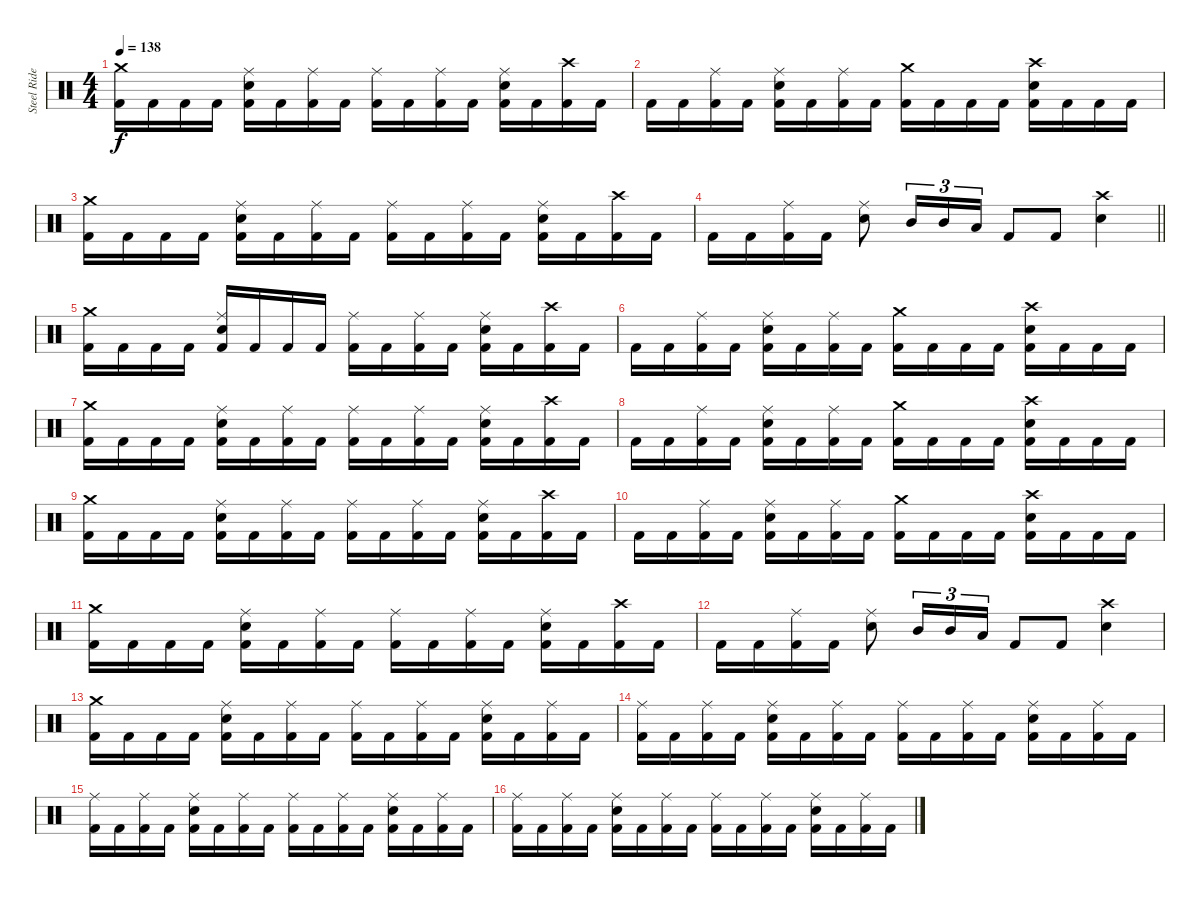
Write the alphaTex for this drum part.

\track ("Steel Rider" "Steel Ride") {instrument percussion}
\staff {score}
\articulation defaults
\ts (4 4)
\tempo 138
\clef neutral
\ks c
("Crash medium (hit)" "Kick (hit) 2").16{dy f} "Kick (hit) 2".16 "Kick (hit) 2".16 "Kick (hit) 2".16 ("Ride (middle)" "Electric Snare (hit)" "Kick (hit) 2").16 "Kick (hit) 2".16 ("Ride (middle)" "Kick (hit) 2").16 "Kick (hit) 2".16 ("Ride (middle)" "Kick (hit) 2").16 "Kick (hit) 2".16 ("Ride (middle)" "Kick (hit) 2").16 "Kick (hit) 2".16 ("Ride (middle)" "Electric Snare (hit)" "Kick (hit) 2").16 "Kick (hit) 2".16 ("Crash high (hit)" "Kick (hit) 2").16 "Kick (hit) 2".16 |
"Kick (hit) 2".16 "Kick (hit) 2".16 ("Ride (middle)" "Kick (hit) 2").16 "Kick (hit) 2".16 ("Ride (middle)" "Electric Snare (hit)" "Kick (hit) 2").16 "Kick (hit) 2".16 ("Ride (middle)" "Kick (hit) 2").16 "Kick (hit) 2".16 ("Crash medium (hit)" "Kick (hit) 2").16 "Kick (hit) 2".16 "Kick (hit) 2".16 "Kick (hit) 2".16 ("Crash high (hit)" "Electric Snare (hit)" "Kick (hit) 2").16 "Kick (hit) 2".16 "Kick (hit) 2".16 "Kick (hit) 2".16 |
("Crash medium (hit)" "Kick (hit) 2").16 "Kick (hit) 2".16 "Kick (hit) 2".16 "Kick (hit) 2".16 ("Ride (middle)" "Electric Snare (hit)" "Kick (hit) 2").16 "Kick (hit) 2".16 ("Ride (middle)" "Kick (hit) 2").16 "Kick (hit) 2".16 ("Ride (middle)" "Kick (hit) 2").16 "Kick (hit) 2".16 ("Ride (middle)" "Kick (hit) 2").16 "Kick (hit) 2".16 ("Ride (middle)" "Electric Snare (hit)" "Kick (hit) 2").16 "Kick (hit) 2".16 ("Crash high (hit)" "Kick (hit) 2").16 "Kick (hit) 2".16 |
\barLineRight lightlight "Kick (hit) 2".16 "Kick (hit) 2".16
("Ride (middle)" "Kick (hit) 2").16 "Kick (hit) 2".16 ("Ride (middle)" "Electric Snare (hit)").8 "Mid Tom (hit)".16{tu (3 2)} "Mid Tom (hit)".16{tu (3 2)} "Low Tom (hit)".16{tu (3 2)} "Kick (hit) 2".8 "Kick (hit) 2".8 ("Crash high (hit)" "Electric Snare (hit)").4 |
("Crash medium (hit)" "Kick (hit) 2").16 "Kick (hit) 2".16 "Kick (hit) 2".16 "Kick (hit) 2".16 ("Ride (middle)" "Electric Snare (hit)" "Kick (hit) 2").16 "Kick (hit) 2".16 "Kick (hit) 2".16 "Kick (hit) 2".16 ("Ride (middle)" "Kick (hit) 2").16 "Kick (hit) 2".16 ("Ride (middle)" "Kick (hit) 2").16 "Kick (hit) 2".16 ("Ride (middle)" "Electric Snare (hit)" "Kick (hit) 2").16 "Kick (hit) 2".16 ("Crash high (hit)" "Kick (hit) 2").16 "Kick (hit) 2".16 |
"Kick (hit) 2".16 "Kick (hit) 2".16 ("Ride (middle)" "Kick (hit) 2").16 "Kick (hit) 2".16 ("Ride (middle)" "Electric Snare (hit)" "Kick (hit) 2").16 "Kick (hit) 2".16 ("Ride (middle)" "Kick (hit) 2").16 "Kick (hit) 2".16 ("Crash medium (hit)" "Kick (hit) 2").16 "Kick (hit) 2".16 "Kick (hit) 2".16 "Kick (hit) 2".16 ("Crash high (hit)" "Electric Snare (hit)" "Kick (hit) 2").16 "Kick (hit) 2".16 "Kick (hit) 2".16 "Kick (hit) 2".16 |
("Crash medium (hit)" "Kick (hit) 2").16 "Kick (hit) 2".16 "Kick (hit) 2".16 "Kick (hit) 2".16 ("Ride (middle)" "Electric Snare (hit)" "Kick (hit) 2").16 "Kick (hit) 2".16 ("Ride (middle)" "Kick (hit) 2").16 "Kick (hit) 2".16 ("Ride (middle)" "Kick (hit) 2").16 "Kick (hit) 2".16 ("Ride (middle)" "Kick (hit) 2").16 "Kick (hit) 2".16 ("Ride (middle)" "Electric Snare (hit)" "Kick (hit) 2").16 "Kick (hit) 2".16 ("Crash high (hit)" "Kick (hit) 2").16 "Kick (hit) 2".16 |
"Kick (hit) 2".16 "Kick (hit) 2".16 ("Ride (middle)" "Kick (hit) 2").16 "Kick (hit) 2".16 ("Ride (middle)" "Electric Snare (hit)" "Kick (hit) 2").16 "Kick (hit) 2".16 ("Ride (middle)" "Kick (hit) 2").16 "Kick (hit) 2".16 ("Crash medium (hit)" "Kick (hit) 2").16 "Kick (hit) 2".16 "Kick (hit) 2".16 "Kick (hit) 2".16 ("Crash high (hit)" "Electric Snare (hit)" "Kick (hit) 2").16 "Kick (hit) 2".16 "Kick (hit) 2".16 "Kick (hit) 2".16 |
("Crash medium (hit)" "Kick (hit) 2").16 "Kick (hit) 2".16 "Kick (hit) 2".16 "Kick (hit) 2".16 ("Ride (middle)" "Electric Snare (hit)" "Kick (hit) 2").16 "Kick (hit) 2".16 ("Ride (middle)" "Kick (hit) 2").16 "Kick (hit) 2".16 ("Ride (middle)" "Kick (hit) 2").16 "Kick (hit) 2".16 ("Ride (middle)" "Kick (hit) 2").16 "Kick (hit) 2".16 ("Ride (middle)" "Electric Snare (hit)" "Kick (hit) 2").16 "Kick (hit) 2".16 ("Crash high (hit)" "Kick (hit) 2").16 "Kick (hit) 2".16 |
"Kick (hit) 2".16 "Kick (hit) 2".16 ("Ride (middle)" "Kick (hit) 2").16 "Kick (hit) 2".16 ("Ride (middle)" "Electric Snare (hit)" "Kick (hit) 2").16 "Kick (hit) 2".16 ("Ride (middle)" "Kick (hit) 2").16 "Kick (hit) 2".16 ("Crash medium (hit)" "Kick (hit) 2").16 "Kick (hit) 2".16 "Kick (hit) 2".16 "Kick (hit) 2".16 ("Crash high (hit)" "Electric Snare (hit)" "Kick (hit) 2").16 "Kick (hit) 2".16 "Kick (hit) 2".16 "Kick (hit) 2".16 |
("Crash medium (hit)" "Kick (hit) 2").16 "Kick (hit) 2".16 "Kick (hit) 2".16 "Kick (hit) 2".16 ("Ride (middle)" "Electric Snare (hit)" "Kick (hit) 2").16 "Kick (hit) 2".16 ("Ride (middle)" "Kick (hit) 2").16 "Kick (hit) 2".16 ("Ride (middle)" "Kick (hit) 2").16 "Kick (hit) 2".16 ("Ride (middle)" "Kick (hit) 2").16 "Kick (hit) 2".16 ("Ride (middle)" "Electric Snare (hit)" "Kick (hit) 2").16 "Kick (hit) 2".16 ("Crash high (hit)" "Kick (hit) 2").16 "Kick (hit) 2".16 |
"Kick (hit) 2".16 "Kick (hit) 2".16 ("Ride (middle)" "Kick (hit) 2").16 "Kick (hit) 2".16 ("Ride (middle)" "Electric Snare (hit)").8 "Mid Tom (hit)".16{tu (3 2)} "Mid Tom (hit)".16{tu (3 2)} "Low Tom (hit)".16{tu (3 2)} "Kick (hit) 2".8 "Kick (hit) 2".8 ("Crash high (hit)" "Electric Snare (hit)").4 |
("Crash medium (hit)" "Kick (hit) 2").16 "Kick (hit) 2".16 "Kick (hit) 2".16 "Kick (hit) 2".16 ("Ride (middle)" "Electric Snare (hit)" "Kick (hit) 2").16 "Kick (hit) 2".16 ("Ride (middle)" "Kick (hit) 2").16 "Kick (hit) 2".16 ("Ride (middle)" "Kick (hit) 2").16 "Kick (hit) 2".16 ("Ride (middle)" "Kick (hit) 2").16 "Kick (hit) 2".16 ("Ride (middle)" "Electric Snare (hit)" "Kick (hit) 2").16 "Kick (hit) 2".16 ("Ride (middle)" "Kick (hit) 2").16 "Kick (hit) 2".16 |
("Ride (middle)" "Kick (hit) 2").16 "Kick (hit) 2".16 ("Ride (middle)" "Kick (hit) 2").16 "Kick (hit) 2".16 ("Ride (middle)" "Electric Snare (hit)" "Kick (hit) 2").16 "Kick (hit) 2".16 ("Ride (middle)" "Kick (hit) 2").16 "Kick (hit) 2".16 ("Ride (middle)" "Kick (hit) 2").16 "Kick (hit) 2".16 ("Ride (middle)" "Kick (hit) 2").16 "Kick (hit) 2".16 ("Ride (middle)" "Electric Snare (hit)" "Kick (hit) 2").16 "Kick (hit) 2".16 ("Ride (middle)" "Kick (hit) 2").16 "Kick (hit) 2".16 |
("Ride (middle)" "Kick (hit) 2").16 "Kick (hit) 2".16 ("Ride (middle)" "Kick (hit) 2").16 "Kick (hit) 2".16 ("Ride (middle)" "Electric Snare (hit)" "Kick (hit) 2").16 "Kick (hit) 2".16 ("Ride (middle)" "Kick (hit) 2").16 "Kick (hit) 2".16 ("Ride (middle)" "Kick (hit) 2").16 "Kick (hit) 2".16 ("Ride (middle)" "Kick (hit) 2").16 "Kick (hit) 2".16 ("Ride (middle)" "Electric Snare (hit)" "Kick (hit) 2").16 "Kick (hit) 2".16 ("Ride (middle)" "Kick (hit) 2").16 "Kick (hit) 2".16 |
("Ride (middle)" "Kick (hit) 2").16 "Kick (hit) 2".16 ("Ride (middle)" "Kick (hit) 2").16 "Kick (hit) 2".16 ("Ride (middle)" "Electric Snare (hit)" "Kick (hit) 2").16 "Kick (hit) 2".16 ("Ride (middle)" "Kick (hit) 2").16 "Kick (hit) 2".16 ("Ride (middle)" "Kick (hit) 2").16 "Kick (hit) 2".16 ("Ride (middle)" "Kick (hit) 2").16 "Kick (hit) 2".16 ("Ride (middle)" "Electric Snare (hit)" "Kick (hit) 2").16 "Kick (hit) 2".16 ("Ride (middle)" "Kick (hit) 2").16 "Kick (hit) 2".16
